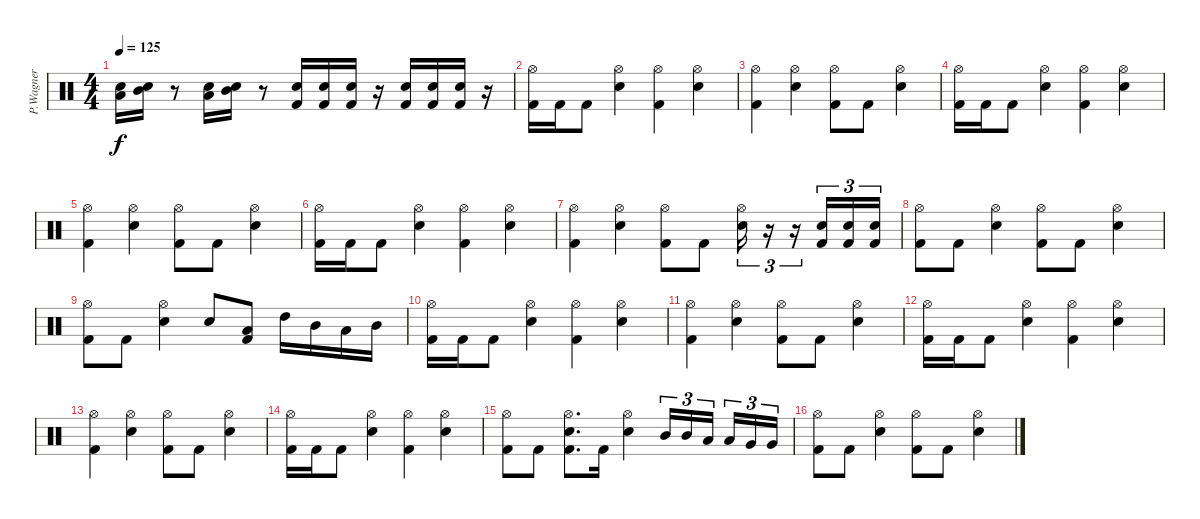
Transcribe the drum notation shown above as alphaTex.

\track ("P.Wagner" "P.Wagner") {instrument percussion}
\staff {score}
\articulation defaults
\ts (4 4)
\tempo 125
\clef neutral
\ks c
("Low Tom (hit)" "Electric Snare (hit)").16{dy f} ("Mid Tom (hit)" "Electric Snare (hit)").16 r.8 ("Low Tom (hit)" "Electric Snare (hit)").16 ("Mid Tom (hit)" "Electric Snare (hit)").16 r.8 ("Electric Snare (hit)" "Kick (hit) 2").16 ("Electric Snare (hit)" "Kick (hit) 2").16 ("Electric Snare (hit)" "Kick (hit) 2").16 r.16 ("Electric Snare (hit)" "Kick (hit) 2").16 ("Electric Snare (hit)" "Kick (hit) 2").16 ("Electric Snare (hit)" "Kick (hit) 2").16 r.16 |
("Kick (hit) 2" "Hi-Hat (open)").16 "Kick (hit) 2".16 "Kick (hit) 2".8 ("Electric Snare (hit)" "Hi-Hat (open)").4 ("Kick (hit) 2" "Hi-Hat (open)").4 ("Electric Snare (hit)" "Hi-Hat (open)").4 |
("Kick (hit) 2" "Hi-Hat (open)").4 ("Electric Snare (hit)" "Hi-Hat (open)").4 ("Kick (hit) 2" "Hi-Hat (open)").8 "Kick (hit) 2".8 ("Electric Snare (hit)" "Hi-Hat (open)").4 |
("Kick (hit) 2" "Hi-Hat (open)").16 "Kick (hit) 2".16 "Kick (hit) 2".8 ("Electric Snare (hit)" "Hi-Hat (open)").4 ("Kick (hit) 2" "Hi-Hat (open)").4 ("Electric Snare (hit)" "Hi-Hat (open)").4 |
("Kick (hit) 2" "Hi-Hat (open)").4 ("Electric Snare (hit)" "Hi-Hat (open)").4 ("Kick (hit) 2" "Hi-Hat (open)").8 "Kick (hit) 2".8 ("Electric Snare (hit)" "Hi-Hat (open)").4 |
("Kick (hit) 2" "Hi-Hat (open)").16 "Kick (hit) 2".16 "Kick (hit) 2".8 ("Electric Snare (hit)" "Hi-Hat (open)").4 ("Kick (hit) 2" "Hi-Hat (open)").4 ("Electric Snare (hit)" "Hi-Hat (open)").4 |
("Kick (hit) 2" "Hi-Hat (open)").4 ("Electric Snare (hit)" "Hi-Hat (open)").4 ("Kick (hit) 2" "Hi-Hat (open)").8 "Kick (hit) 2".8 ("Electric Snare (hit)" "Hi-Hat (open)").16{tu (3 2)} r.16{tu (3 2)} r.16{tu (3 2)} ("Electric Snare (hit)" "Kick (hit) 2").16{tu (3 2)} ("Electric Snare (hit)" "Kick (hit) 2").16{tu (3 2)} ("Electric Snare (hit)" "Kick (hit) 2").16{tu (3 2)} |
("Kick (hit) 2" "Hi-Hat (open)").8 "Kick (hit) 2".8 ("Hi-Hat (open)" "Electric Snare (hit)").4 ("Kick (hit) 2" "Hi-Hat (open)").8 "Kick (hit) 2".8 ("Hi-Hat (open)" "Electric Snare (hit)").4 |
("Kick (hit) 2" "Hi-Hat (open)").8 "Kick (hit) 2".8 ("Hi-Hat (open)" "Electric Snare (hit)").4 "Electric Snare (hit)".8 ("Low Tom (hit)" "Kick (hit) 2").8 "High Tom (hit)".16 "Mid Tom (hit)".16 "Low Tom (hit)".16 "Mid Tom (hit)".16 |
("Kick (hit) 2" "Hi-Hat (open)").16 "Kick (hit) 2".16 "Kick (hit) 2".8 ("Electric Snare (hit)" "Hi-Hat (open)").4 ("Kick (hit) 2" "Hi-Hat (open)").4 ("Electric Snare (hit)" "Hi-Hat (open)").4 |
("Kick (hit) 2" "Hi-Hat (open)").4 ("Electric Snare (hit)" "Hi-Hat (open)").4 ("Kick (hit) 2" "Hi-Hat (open)").8 "Kick (hit) 2".8 ("Electric Snare (hit)" "Hi-Hat (open)").4 |
("Kick (hit) 2" "Hi-Hat (open)").16 "Kick (hit) 2".16 "Kick (hit) 2".8 ("Electric Snare (hit)" "Hi-Hat (open)").4 ("Kick (hit) 2" "Hi-Hat (open)").4 ("Electric Snare (hit)" "Hi-Hat (open)").4 |
("Kick (hit) 2" "Hi-Hat (open)").4 ("Electric Snare (hit)" "Hi-Hat (open)").4 ("Kick (hit) 2" "Hi-Hat (open)").8 "Kick (hit) 2".8 ("Electric Snare (hit)" "Hi-Hat (open)").4 |
("Kick (hit) 2" "Hi-Hat (open)").16 "Kick (hit) 2".16 "Kick (hit) 2".8 ("Electric Snare (hit)" "Hi-Hat (open)").4 ("Kick (hit) 2" "Hi-Hat (open)").4 ("Electric Snare (hit)" "Hi-Hat (open)").4 |
("Kick (hit) 2" "Hi-Hat (open)").8 "Kick (hit) 2".8 ("Kick (hit) 2" "Electric Snare (hit)" "Hi-Hat (open)").8{d} "Kick (hit) 2".16 ("Electric Snare (hit)" "Hi-Hat (open)").4 "Mid Tom (hit)".16{tu (3 2)} "Mid Tom (hit)".16{tu (3 2)} "Low Tom (hit)".16{tu (3 2) beam splitsecondary} "Low Tom (hit)".16{tu (3 2)} "Very Low Tom (hit)".16{tu (3 2)} "Very Low Tom (hit)".16{tu (3 2)} |
("Kick (hit) 2" "Hi-Hat (open)").8 "Kick (hit) 2".8 ("Hi-Hat (open)" "Electric Snare (hit)").4 ("Kick (hit) 2" "Hi-Hat (open)").8 "Kick (hit) 2".8 ("Hi-Hat (open)" "Electric Snare (hit)").4
